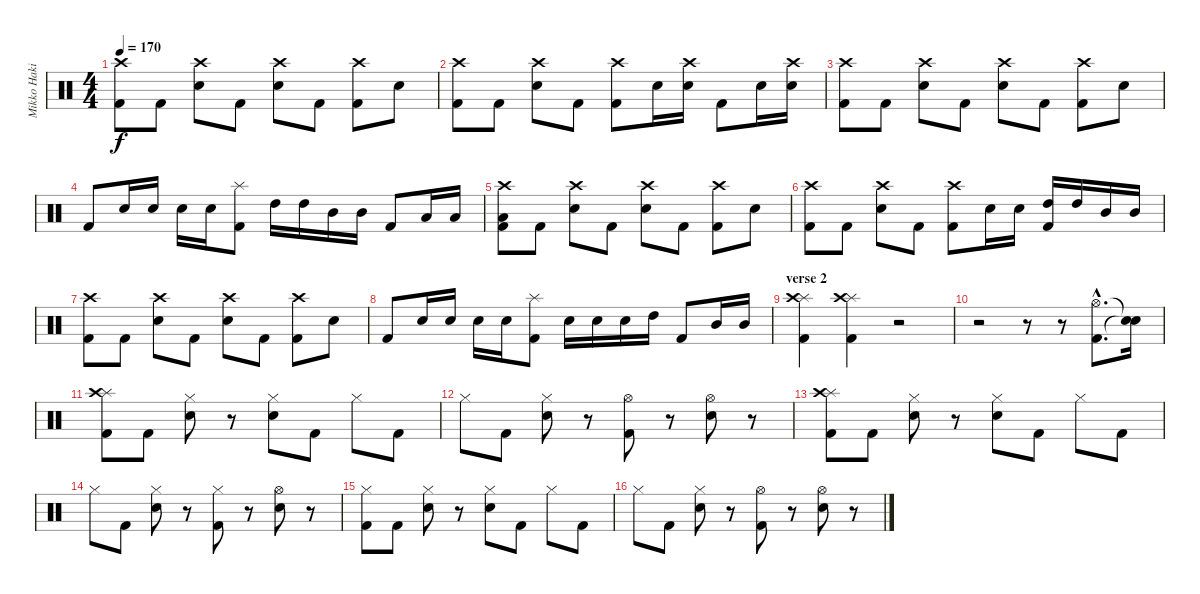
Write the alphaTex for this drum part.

\track ("Mikko Hakila - drums" "Mikko Haki") {instrument percussion}
\staff {score}
\articulation defaults
\ts (4 4)
\tempo 170
\clef neutral
\ks c
("Crash high (hit)" "Kick (hit) 2").8{dy f} "Kick (hit) 2".8 ("Crash high (hit)" "Snare (hit) 2").8 "Kick (hit) 2".8 ("Crash high (hit)" "Snare (hit) 2").8 "Kick (hit) 2".8 ("Crash high (hit)" "Kick (hit) 2").8 "Snare (hit) 2".8 |
("Crash high (hit)" "Kick (hit) 2").8 "Kick (hit) 2".8 ("Crash high (hit)" "Snare (hit) 2").8 "Kick (hit) 2".8 ("Crash high (hit)" "Kick (hit) 2").8 "Snare (hit) 2".16 ("Crash high (hit)" "Snare (hit) 2").16 "Kick (hit) 2".8 "Snare (hit) 2".16 ("Crash high (hit)" "Snare (hit) 2").16 |
("Crash high (hit)" "Kick (hit) 2").8 "Kick (hit) 2".8 ("Crash high (hit)" "Snare (hit) 2").8 "Kick (hit) 2".8 ("Crash high (hit)" "Snare (hit) 2").8 "Kick (hit) 2".8 ("Crash high (hit)" "Kick (hit) 2").8 "Snare (hit) 2".8 |
"Kick (hit) 2".8 "Snare (hit) 2".16 "Snare (hit) 2".16 "Snare (hit) 2".16 "Snare (hit) 2".16 ("Splash (hit)" "Kick (hit) 2").8 "High Tom (hit)".16 "High Tom (hit)".16 "Mid Tom (hit)".16 "Mid Tom (hit)".16 "Kick (hit) 2".8 "Low Tom (hit)".16 "Low Tom (hit)".16 |
("Crash high (hit)" "Low Tom (hit)" "Kick (hit) 2").8 "Kick (hit) 2".8 ("Crash high (hit)" "Snare (hit) 2").8 "Kick (hit) 2".8 ("Crash high (hit)" "Snare (hit) 2").8 "Kick (hit) 2".8 ("Crash high (hit)" "Kick (hit) 2").8 "Snare (hit) 2".8 |
("Crash high (hit)" "Kick (hit) 2").8 "Kick (hit) 2".8 ("Crash high (hit)" "Snare (hit) 2").8 "Kick (hit) 2".8 ("Crash high (hit)" "Kick (hit) 2").8 "Snare (hit) 2".16 "Snare (hit) 2".16 ("High Tom (hit)" "Kick (hit) 2").16 "High Tom (hit)".16 "Mid Tom (hit)".16 "Mid Tom (hit)".16 |
("Crash high (hit)" "Kick (hit) 2").8 "Kick (hit) 2".8 ("Crash high (hit)" "Snare (hit) 2").8 "Kick (hit) 2".8 ("Crash high (hit)" "Snare (hit) 2").8 "Kick (hit) 2".8 ("Crash high (hit)" "Kick (hit) 2").8 "Snare (hit) 2".8 |
"Kick (hit) 2".8 "Snare (hit) 2".16 "Snare (hit) 2".16 "Snare (hit) 2".16 "Snare (hit) 2".16 ("Splash (hit)" "Kick (hit) 2").8 "Snare (hit) 2".16 "Snare (hit) 2".16 "Snare (hit) 2".16 "High Tom (hit)".16 "Kick (hit) 2".8 "Mid Tom (hit)".16 "Mid Tom (hit)".16 |
\section ("" "verse 2")
("Splash (hit)" "Crash high (hit)" "Kick (hit) 2").4 ("Splash (hit)" "Crash high (hit)" "Kick (hit) 2").4 r.2 |
r.2 r.8 r.8 ("Hi-Hat (open)"{hac} "Kick (hit) 2"{hac}).8{d} ("Snare (hit)"{t} "Snare (hit)"{t}).16 |
("Splash (hit)" "Crash high (hit)" "Kick (hit) 2").8 "Kick (hit) 2".8 ("Hi-Hat (closed)" "Snare (hit) 2").8 r.8 ("Hi-Hat (closed)" "Snare (hit) 2").8 "Kick (hit) 2".8 "Hi-Hat (closed)".8 "Kick (hit) 2".8 |
"Hi-Hat (closed)".8 "Kick (hit) 2".8 ("Hi-Hat (closed)" "Snare (hit) 2").8 r.8 ("Hi-Hat (open)" "Kick (hit) 2").8 r.8 ("Hi-Hat (open)" "Snare (hit) 2").8 r.8 |
("Splash (hit)" "Crash high (hit)" "Kick (hit) 2").8 "Kick (hit) 2".8 ("Hi-Hat (closed)" "Snare (hit) 2").8 r.8 ("Hi-Hat (closed)" "Snare (hit) 2").8 "Kick (hit) 2".8 "Hi-Hat (closed)".8 "Kick (hit) 2".8 |
"Hi-Hat (closed)".8 "Kick (hit) 2".8 ("Hi-Hat (closed)" "Snare (hit) 2").8 r.8 ("Hi-Hat (closed)" "Kick (hit) 2").8 r.8 ("Hi-Hat (open)" "Snare (hit) 2").8 r.8 |
("Hi-Hat (closed)" "Kick (hit) 2").8 "Kick (hit) 2".8 ("Hi-Hat (closed)" "Snare (hit) 2").8 r.8 ("Hi-Hat (closed)" "Snare (hit) 2").8 "Kick (hit) 2".8 "Hi-Hat (closed)".8 "Kick (hit) 2".8 |
"Hi-Hat (closed)".8 "Kick (hit) 2".8 ("Hi-Hat (closed)" "Snare (hit) 2").8 r.8 ("Hi-Hat (open)" "Kick (hit) 2").8 r.8 ("Hi-Hat (open)" "Snare (hit) 2").8 r.8
